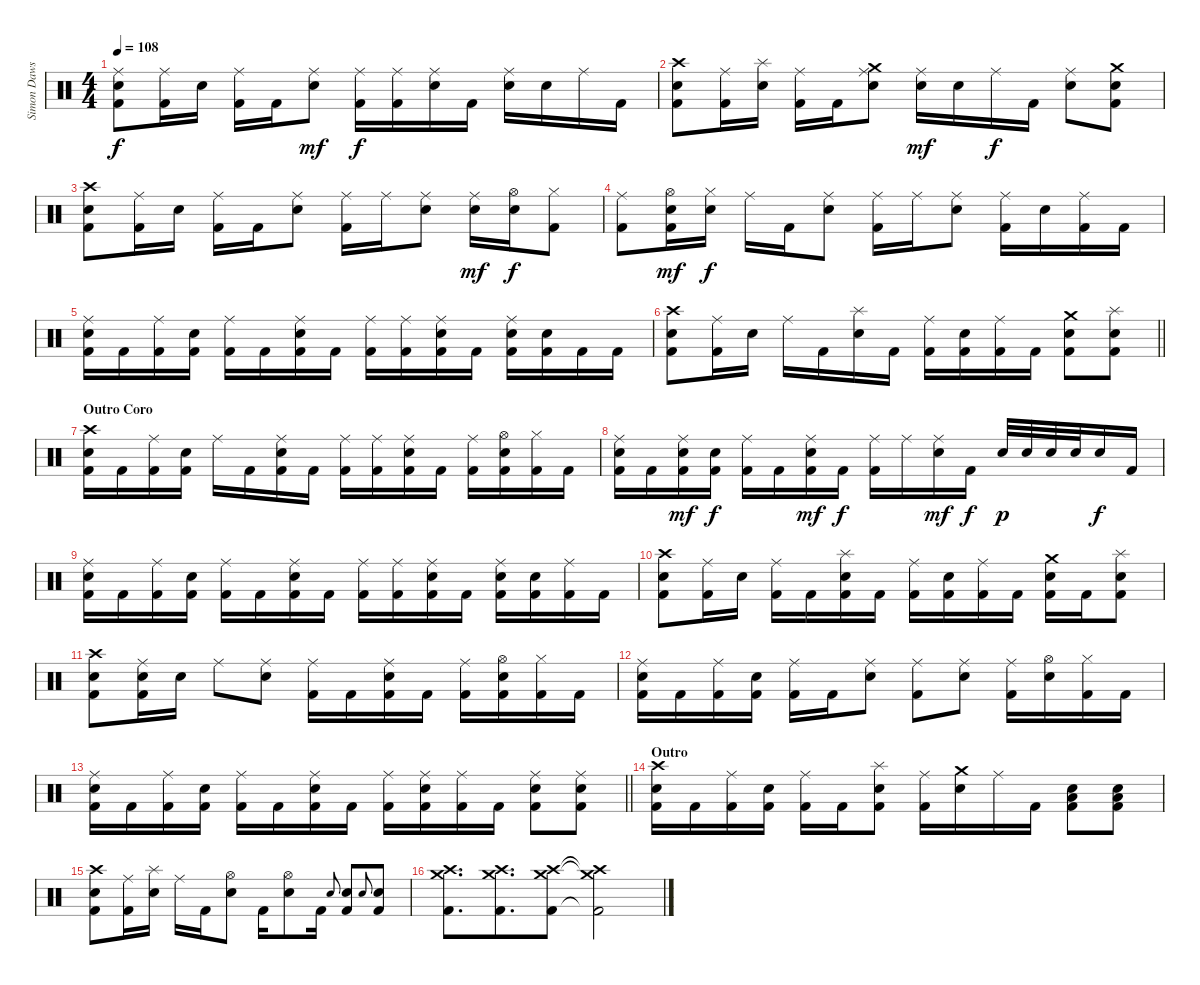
\track ("Simon Dawson" "Simon Daws") {instrument percussion}
\staff {score}
\articulation defaults
\ts (4 4)
\tempo 108
\clef neutral
\ks c
("Ride (middle)" "Snare (hit) 2" "Kick (hit) 2").8{dy f} ("Ride (middle)" "Kick (hit) 2").16 "Snare (hit) 2".16 ("Ride (middle)" "Kick (hit) 2").16 "Kick (hit) 2".16 ("Ride (middle)" "Snare (hit) 2").8{dy mf} ("Ride (middle)" "Kick (hit) 2").16{dy f} ("Ride (middle)" "Kick (hit) 2").16 ("Ride (middle)" "Snare (hit) 2").16 "Kick (hit) 2".16 ("Ride (middle)" "Snare (hit) 2").16 "Snare (hit) 2".16 "Ride (middle)".16 "Kick (hit) 2".16 |
("Snare (hit) 2" "Crash high (hit)" "Kick (hit) 2").8 ("Ride (middle)" "Kick (hit) 2").16 ("Snare (hit) 2" "Splash (hit)").16 ("Ride (middle)" "Kick (hit) 2").16 "Kick (hit) 2".16 ("Ride (middle)" "Snare (hit) 2" "Crash medium (hit)").8 ("Ride (middle)" "Snare (hit) 2").16{dy mf} "Snare (hit) 2".16 "Ride (middle)".16{dy f} "Kick (hit) 2".16 ("Ride (middle)" "Snare (hit) 2").8 ("Snare (hit) 2" "Crash medium (hit)" "Kick (hit) 2").8 |
("Snare (hit) 2" "Crash high (hit)" "Kick (hit) 2").8 ("Ride (middle)" "Kick (hit) 2").16 "Snare (hit) 2".16 ("Ride (middle)" "Kick (hit) 2").16 "Kick (hit) 2".16 ("Ride (middle)" "Snare (hit) 2").8 ("Ride (middle)" "Kick (hit) 2").16 "Ride (middle)".16 ("Ride (middle)" "Snare (hit) 2").8 ("Ride (middle)" "Snare (hit) 2").16{dy mf} ("Hi-Hat (open)" "Snare (hit) 2").16{dy f} ("Hi-Hat (closed)" "Kick (hit) 2").8 |
("Ride (middle)" "Kick (hit) 2").8 ("Hi-Hat (open)" "Snare (hit) 2" "Kick (hit) 2").16{dy mf} ("Hi-Hat (closed)" "Snare (hit) 2").16{dy f} "Ride (middle)".16 "Kick (hit) 2".16 ("Ride (middle)" "Snare (hit) 2").8 ("Ride (middle)" "Kick (hit) 2").16 "Ride (middle)".16 ("Ride (middle)" "Snare (hit) 2").8 ("Ride (middle)" "Kick (hit) 2").16 "Snare (hit) 2".16 ("Ride (middle)" "Kick (hit) 2").16 "Kick (hit) 2".16 |
("Ride (middle)" "Snare (hit) 2" "Kick (hit) 2").16 "Kick (hit) 2".16 ("Ride (middle)" "Kick (hit) 2").16 ("Snare (hit) 2" "Kick (hit) 2").16 ("Ride (middle)" "Kick (hit) 2").16 "Kick (hit) 2".16 ("Ride (middle)" "Snare (hit) 2" "Kick (hit) 2").16 "Kick (hit) 2".16 ("Ride (middle)" "Kick (hit) 2").16 ("Ride (middle)" "Kick (hit) 2").16 ("Ride (middle)" "Snare (hit) 2" "Kick (hit) 2").16 "Kick (hit) 2".16 ("Ride (middle)" "Snare (hit) 2" "Kick (hit) 2").16 ("Snare (hit) 2" "Kick (hit) 2").16 "Kick (hit) 2".16 "Kick (hit) 2".16 |
\barLineRight lightlight
("Snare (hit) 2" "Crash high (hit)" "Kick (hit) 2").8 ("Ride (middle)" "Kick (hit) 2").16 "Snare (hit) 2".16 "Ride (middle)".16 "Kick (hit) 2".16 ("Snare (hit) 2" "Splash (hit)").16 "Kick (hit) 2".16 ("Ride (middle)" "Kick (hit) 2").16 ("Snare (hit) 2" "Kick (hit) 2").16 ("Ride (middle)" "Kick (hit) 2").16 "Kick (hit) 2".16 ("Snare (hit) 2" "Crash medium (hit)" "Kick (hit) 2").8 ("Snare (hit) 2" "Splash (hit)" "Kick (hit) 2").8 |
\section ("" "Outro Coro")
("Snare (hit) 2" "Crash high (hit)" "Kick (hit) 2").16 "Kick (hit) 2".16 ("Ride (middle)" "Kick (hit) 2").16 ("Snare (hit) 2" "Kick (hit) 2").16 "Ride (middle)".16 "Kick (hit) 2".16 ("Ride (middle)" "Snare (hit) 2" "Kick (hit) 2").16 "Kick (hit) 2".16 ("Ride (middle)" "Kick (hit) 2").16 ("Ride (middle)" "Kick (hit) 2").16 ("Ride (middle)" "Snare (hit) 2" "Kick (hit) 2").16 "Kick (hit) 2".16 ("Ride (middle)" "Kick (hit) 2").16 ("Hi-Hat (open)" "Snare (hit) 2" "Kick (hit) 2").16 ("Hi-Hat (closed)" "Kick (hit) 2").16 "Kick (hit) 2".16 |
("Ride (middle)" "Snare (hit) 2" "Kick (hit) 2").16 "Kick (hit) 2".16 ("Ride (middle)" "Snare (hit) 2" "Kick (hit) 2").16{dy mf} ("Snare (hit) 2" "Kick (hit) 2").16{dy f} ("Ride (middle)" "Kick (hit) 2").16 "Kick (hit) 2".16 ("Ride (middle)" "Snare (hit) 2" "Kick (hit) 2").16{dy mf} "Kick (hit) 2".16{dy f} ("Ride (middle)" "Kick (hit) 2").16 "Ride (middle)".16 ("Ride (middle)" "Snare (hit) 2").16{dy mf} "Kick (hit) 2".16{dy f} "Snare (hit) 2".32{dy p} "Snare (hit) 2".32 "Snare (hit) 2".32 "Snare (hit) 2".32 "Snare (hit) 2".16{dy f} "Kick (hit) 2".16 |
("Ride (middle)" "Snare (hit) 2" "Kick (hit) 2").16 "Kick (hit) 2".16 ("Ride (middle)" "Kick (hit) 2").16 ("Snare (hit) 2" "Kick (hit) 2").16 ("Ride (middle)" "Kick (hit) 2").16 "Kick (hit) 2".16 ("Ride (middle)" "Snare (hit) 2" "Kick (hit) 2").16 "Kick (hit) 2".16 ("Ride (middle)" "Kick (hit) 2").16 ("Ride (middle)" "Kick (hit) 2").16 ("Ride (middle)" "Snare (hit) 2" "Kick (hit) 2").16 "Kick (hit) 2".16 ("Ride (middle)" "Snare (hit) 2" "Kick (hit) 2").16 ("Snare (hit) 2" "Kick (hit) 2").16 ("Ride (middle)" "Kick (hit) 2").16 "Kick (hit) 2".16 |
("Snare (hit) 2" "Crash high (hit)" "Kick (hit) 2").8 ("Ride (middle)" "Kick (hit) 2").16 "Snare (hit) 2".16 ("Ride (middle)" "Kick (hit) 2").16 "Kick (hit) 2".16 ("Snare (hit) 2" "Splash (hit)" "Kick (hit) 2").16 "Kick (hit) 2".16 ("Ride (middle)" "Kick (hit) 2").16 ("Snare (hit) 2" "Kick (hit) 2").16 ("Ride (middle)" "Kick (hit) 2").16 "Kick (hit) 2".16 ("Snare (hit) 2" "Crash medium (hit)" "Kick (hit) 2").16 "Kick (hit) 2".16 ("Snare (hit) 2" "Splash (hit)" "Kick (hit) 2").8 |
("Snare (hit) 2" "Crash high (hit)" "Kick (hit) 2").8 ("Ride (middle)" "Snare (hit) 2" "Kick (hit) 2").16 "Snare (hit) 2".16 "Ride (middle)".8 ("Ride (middle)" "Snare (hit) 2").8 ("Ride (middle)" "Kick (hit) 2").16 "Kick (hit) 2".16 ("Ride (middle)" "Snare (hit) 2" "Kick (hit) 2").16 "Kick (hit) 2".16 ("Ride (middle)" "Kick (hit) 2").16 ("Hi-Hat (open)" "Snare (hit) 2" "Kick (hit) 2").16 ("Hi-Hat (closed)" "Kick (hit) 2").16 "Kick (hit) 2".16 |
("Ride (middle)" "Snare (hit) 2" "Kick (hit) 2").16 "Kick (hit) 2".16 ("Ride (middle)" "Kick (hit) 2").16 ("Snare (hit) 2" "Kick (hit) 2").16 ("Ride (middle)" "Kick (hit) 2").16 "Kick (hit) 2".16 ("Ride (middle)" "Snare (hit) 2").8 ("Ride (middle)" "Kick (hit) 2").8 ("Ride (middle)" "Snare (hit) 2").8 ("Ride (middle)" "Kick (hit) 2").16 ("Hi-Hat (open)" "Snare (hit) 2").16 ("Hi-Hat (closed)" "Kick (hit) 2").16 "Kick (hit) 2".16 |
\barLineRight lightlight
("Ride (middle)" "Snare (hit) 2" "Kick (hit) 2").16 "Kick (hit) 2".16 ("Ride (middle)" "Kick (hit) 2").16 ("Snare (hit) 2" "Kick (hit) 2").16 ("Ride (middle)" "Kick (hit) 2").16 "Kick (hit) 2".16 ("Ride (middle)" "Snare (hit) 2" "Kick (hit) 2").16 "Kick (hit) 2".16 ("Ride (middle)" "Kick (hit) 2").16 ("Ride (middle)" "Snare (hit) 2" "Kick (hit) 2").16 ("Ride (middle)" "Kick (hit) 2").16 "Kick (hit) 2".16 ("Ride (middle)" "Snare (hit) 2" "Kick (hit) 2").8 ("Ride (middle)" "Snare (hit) 2" "Kick (hit) 2").8 |
\section ("" "Outro")
("Snare (hit) 2" "Crash high (hit)" "Kick (hit) 2").16 "Kick (hit) 2".16 ("Ride (middle)" "Kick (hit) 2").16 ("Snare (hit) 2" "Kick (hit) 2").16 ("Ride (middle)" "Kick (hit) 2").16 "Kick (hit) 2".16 ("Snare (hit) 2" "Splash (hit)" "Kick (hit) 2").8 ("Ride (middle)" "Kick (hit) 2").16 ("Snare (hit) 2" "Crash medium (hit)").16 "Ride (middle)".16 "Kick (hit) 2".16 ("Snare (hit) 2" "Low Floor Tom (hit)" "Kick (hit) 2").8 ("Snare (hit) 2" "Low Floor Tom (hit)" "Kick (hit) 2").8 |
("Snare (hit) 2" "Crash high (hit)" "Kick (hit) 2").8 ("Ride (middle)" "Kick (hit) 2").16 ("Snare (hit) 2" "Splash (hit)").16 "Ride (middle)".16 "Kick (hit) 2".16 ("Hi-Hat (open)" "Snare (hit) 2").8 "Kick (hit) 2".16 ("Hi-Hat (open)" "Snare (hit) 2").8 "Kick (hit) 2".16 "Snare (hit) 2".8{gr onbeat} ("Snare (hit) 2" "Kick (hit) 2").8 "Snare (hit) 2".8{gr onbeat} ("Snare (hit) 2" "Kick (hit) 2").8 |
("Crash medium (hit)" "Crash high (hit)" "Kick (hit) 2").8{d} ("Crash medium (hit)" "Crash high (hit)" "Kick (hit) 2").8{d beam merge} ("Crash medium (hit)" "Crash high (hit)" "Kick (hit) 2").8 ("Crash medium (hit)"{t} "Crash high (hit)"{t} "Kick (hit) 2"{t}).2
